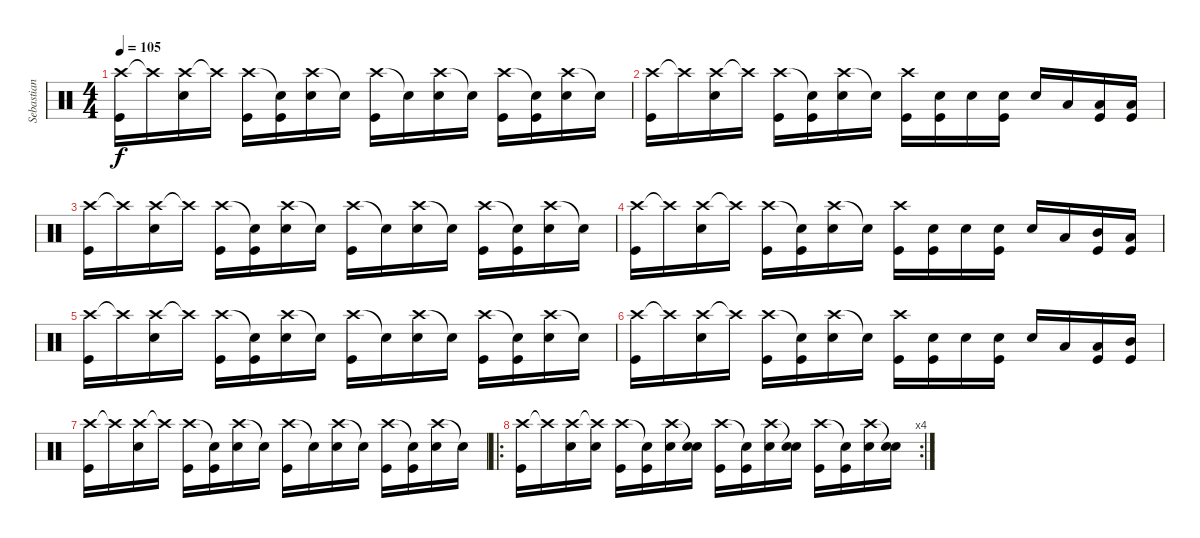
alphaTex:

\track ("Sebastian Grainger" "Sebastian ") {instrument percussion}
\staff {score}
\articulation defaults
\ts (4 4)
\tempo 105
\clef neutral
\ks c
("Crash high (hit)" "Kick (hit)").16{dy f} "Crash high (hit)"{t}.16 ("Crash high (hit)" "Snare (hit) 2").16 "Crash high (hit)"{t}.16 ("Crash high (hit)" "Kick (hit)").16 ("Snare (hit)"{t} "Kick (hit)").16 ("Crash high (hit)" "Snare (hit) 2").16 "Snare (hit)"{t}.16 ("Crash high (hit)" "Kick (hit)").16 "Snare (hit)"{t}.16 ("Crash high (hit)" "Snare (hit) 2").16 "Snare (hit)"{t}.16 ("Crash high (hit)" "Kick (hit)").16 ("Snare (hit)"{t} "Kick (hit)").16 ("Crash high (hit)" "Snare (hit) 2").16 "Snare (hit)"{t}.16 |
("Crash high (hit)" "Kick (hit)").16 "Crash high (hit)"{t}.16 ("Crash high (hit)" "Snare (hit) 2").16 "Crash high (hit)"{t}.16 ("Crash high (hit)" "Kick (hit)").16 ("Snare (hit)"{t} "Kick (hit)").16 ("Crash high (hit)" "Snare (hit) 2").16 "Snare (hit)"{t}.16 ("Crash high (hit)" "Kick (hit)").16 ("Snare (hit) 2" "Kick (hit)").16 "Snare (hit) 2".16 ("Snare (hit) 2" "Kick (hit)").16 "Snare (hit) 2".16 "Low Tom (hit)".16 ("Low Floor Tom (hit)" "Kick (hit)").16 ("Low Floor Tom (hit)" "Kick (hit)").16 |
("Crash high (hit)" "Kick (hit)").16 "Crash high (hit)"{t}.16 ("Crash high (hit)" "Snare (hit) 2").16 "Crash high (hit)"{t}.16 ("Crash high (hit)" "Kick (hit)").16 ("Snare (hit)"{t} "Kick (hit)").16 ("Crash high (hit)" "Snare (hit) 2").16 "Snare (hit)"{t}.16 ("Crash high (hit)" "Kick (hit)").16 "Snare (hit)"{t}.16 ("Crash high (hit)" "Snare (hit) 2").16 "Snare (hit)"{t}.16 ("Crash high (hit)" "Kick (hit)").16 ("Snare (hit)"{t} "Kick (hit)").16 ("Crash high (hit)" "Snare (hit) 2").16 "Snare (hit)"{t}.16 |
("Crash high (hit)" "Kick (hit)").16 "Crash high (hit)"{t}.16 ("Crash high (hit)" "Snare (hit) 2").16 "Crash high (hit)"{t}.16 ("Crash high (hit)" "Kick (hit)").16 ("Snare (hit)"{t} "Kick (hit)").16 ("Crash high (hit)" "Snare (hit) 2").16 "Snare (hit)"{t}.16 ("Crash high (hit)" "Kick (hit)").16 ("Snare (hit) 2" "Kick (hit)").16 "Snare (hit) 2".16 ("Snare (hit) 2" "Kick (hit)").16 "Snare (hit) 2".16 "Low Tom (hit)".16 ("Mid Tom (hit)" "Kick (hit)").16 ("Low Floor Tom (hit)" "Kick (hit)").16 |
("Crash high (hit)" "Kick (hit)").16 "Crash high (hit)"{t}.16 ("Crash high (hit)" "Snare (hit) 2").16 "Crash high (hit)"{t}.16 ("Crash high (hit)" "Kick (hit)").16 ("Snare (hit)"{t} "Kick (hit)").16 ("Crash high (hit)" "Snare (hit) 2").16 "Snare (hit)"{t}.16 ("Crash high (hit)" "Kick (hit)").16 "Snare (hit)"{t}.16 ("Crash high (hit)" "Snare (hit) 2").16 "Snare (hit)"{t}.16 ("Crash high (hit)" "Kick (hit)").16 ("Snare (hit)"{t} "Kick (hit)").16 ("Crash high (hit)" "Snare (hit) 2").16 "Snare (hit)"{t}.16 |
("Crash high (hit)" "Kick (hit)").16 "Crash high (hit)"{t}.16 ("Crash high (hit)" "Snare (hit) 2").16 "Crash high (hit)"{t}.16 ("Crash high (hit)" "Kick (hit)").16 ("Snare (hit)"{t} "Kick (hit)").16 ("Crash high (hit)" "Snare (hit) 2").16 "Snare (hit)"{t}.16 ("Crash high (hit)" "Kick (hit)").16 ("Snare (hit) 2" "Kick (hit)").16 "Snare (hit) 2".16 ("Snare (hit) 2" "Kick (hit)").16 "Snare (hit) 2".16 "Low Tom (hit)".16 ("Low Tom (hit)" "Kick (hit)").16 ("Mid Tom (hit)" "Kick (hit)").16 |
("Crash high (hit)" "Kick (hit)").16 "Crash high (hit)"{t}.16 ("Crash high (hit)" "Snare (hit) 2").16 "Crash high (hit)"{t}.16 ("Crash high (hit)" "Kick (hit)").16 ("Snare (hit)"{t} "Kick (hit)").16 ("Crash high (hit)" "Snare (hit) 2").16 "Snare (hit)"{t}.16 ("Crash high (hit)" "Kick (hit)").16 "Snare (hit)"{t}.16 ("Crash high (hit)" "Snare (hit) 2").16 "Snare (hit)"{t}.16 ("Crash high (hit)" "Kick (hit)").16 ("Snare (hit)"{t} "Kick (hit)").16 ("Crash high (hit)" "Snare (hit) 2").16 "Snare (hit)"{t}.16 |
\ro
\rc 4
("Crash high (hit)" "Kick (hit)").16 "Crash high (hit)"{t}.16 ("Crash high (hit)" "Snare (hit) 2").16 ("Crash high (hit)"{t} "Snare (hit) 2").16 ("Crash high (hit)" "Kick (hit)").16 ("Snare (hit)"{t} "Kick (hit)").16 ("Crash high (hit)" "Snare (hit) 2").16 ("Snare (hit)"{t} "Snare (hit) 2").16 ("Crash high (hit)" "Kick (hit)").16 ("Snare (hit)"{t} "Kick (hit)").16 ("Crash high (hit)" "Snare (hit) 2").16 ("Snare (hit)"{t} "Snare (hit) 2").16 ("Crash high (hit)" "Kick (hit)").16 ("Snare (hit)"{t} "Kick (hit)").16 ("Crash high (hit)" "Snare (hit) 2").16 ("Snare (hit)"{t} "Snare (hit) 2").16
